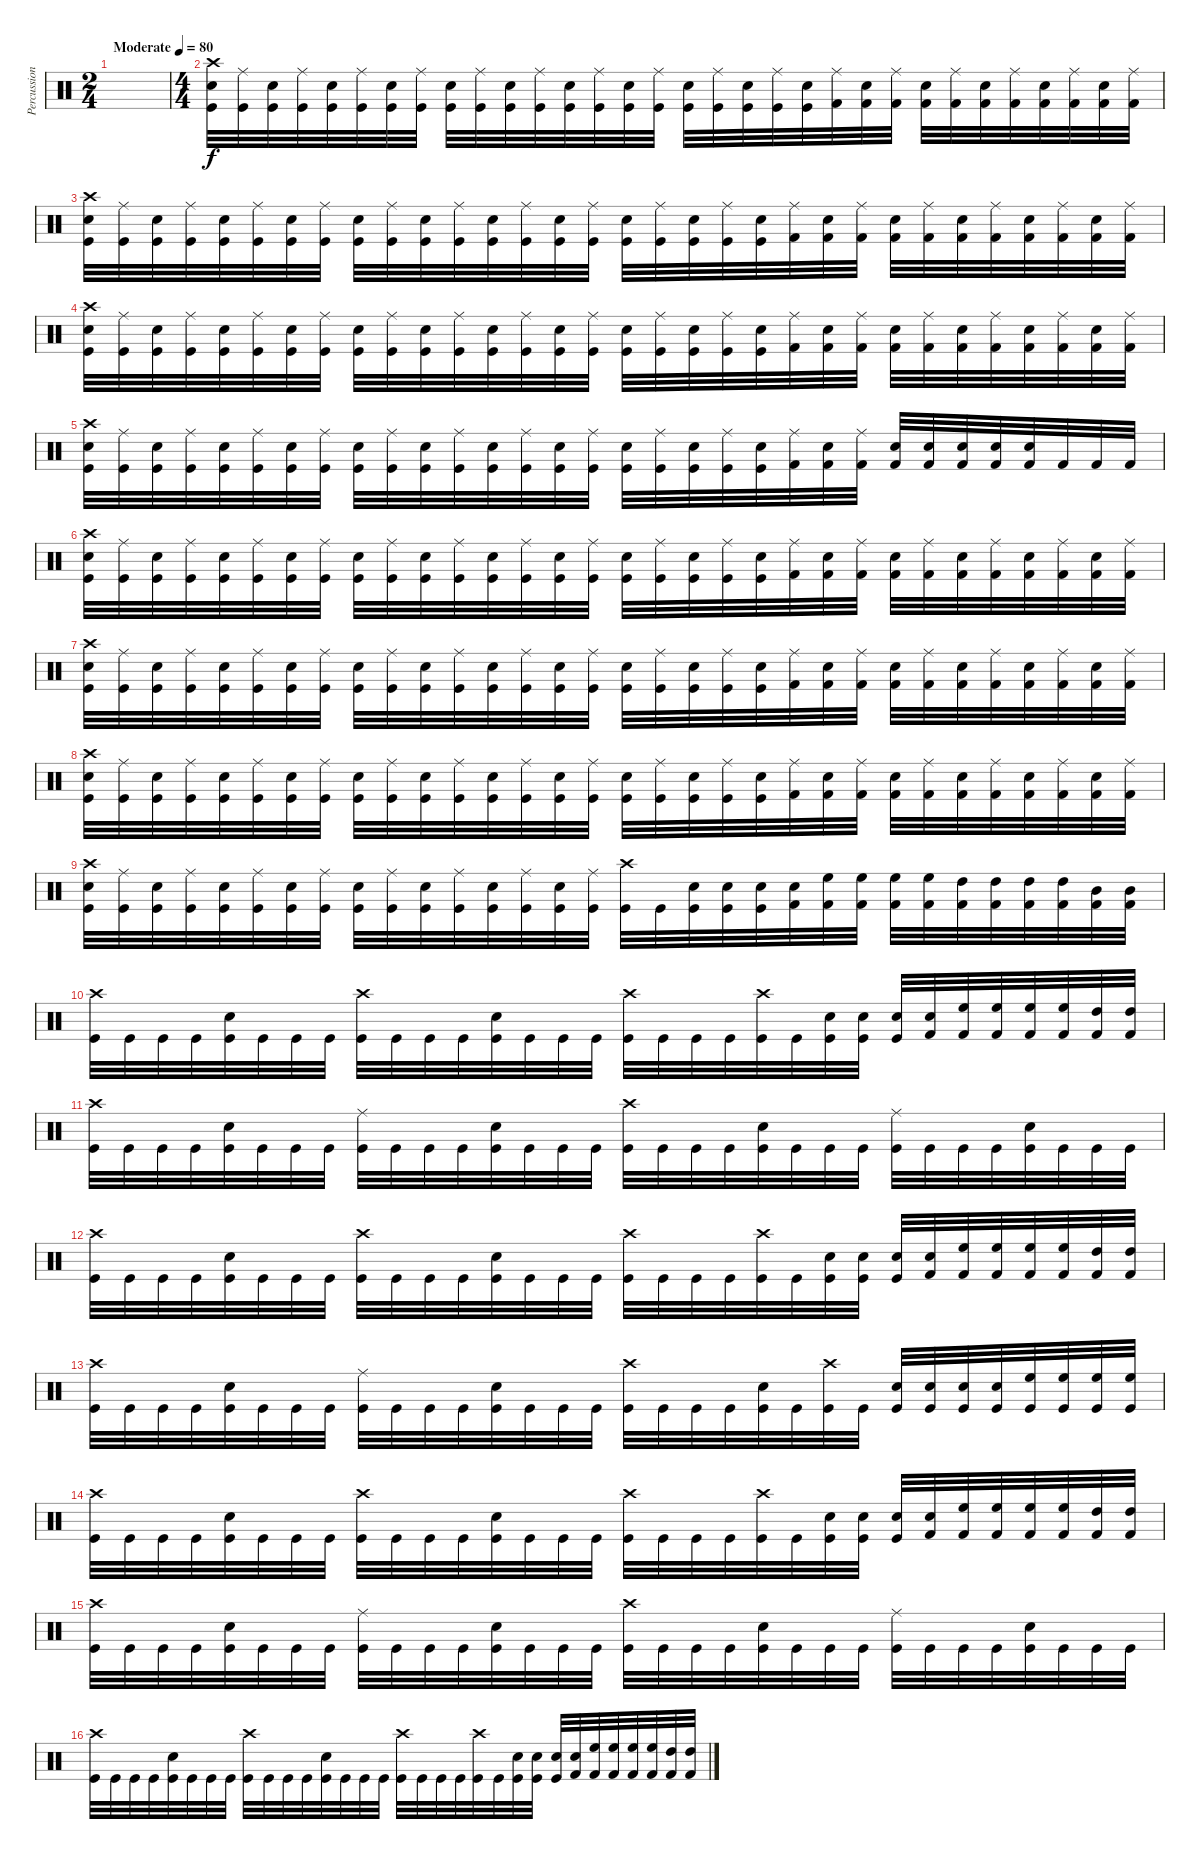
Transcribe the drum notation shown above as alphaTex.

\track ("Percussion" "Percussion") {instrument percussion bank 177}
\staff {score}
\articulation defaults
\ts (2 4)
\tempo (80 "Moderate")
\clef neutral
\ks c
|
\ts (4 4)
("Crash high (hit)" "Snare (hit) 2" "Kick (hit)").32 ("Ride (middle)" "Kick (hit)").32 ("Snare (hit) 2" "Kick (hit)").32 ("Ride (middle)" "Kick (hit)").32 ("Snare (hit) 2" "Kick (hit)").32 ("Ride (middle)" "Kick (hit)").32 ("Snare (hit) 2" "Kick (hit)").32 ("Ride (middle)" "Kick (hit)").32 ("Snare (hit) 2" "Kick (hit)").32 ("Ride (middle)" "Kick (hit)").32 ("Snare (hit) 2" "Kick (hit)").32 ("Ride (middle)" "Kick (hit)").32 ("Snare (hit) 2" "Kick (hit)").32 ("Ride (middle)" "Kick (hit)").32 ("Snare (hit) 2" "Kick (hit)").32 ("Ride (middle)" "Kick (hit)").32 ("Snare (hit) 2" "Kick (hit)").32 ("Ride (middle)" "Kick (hit)").32 ("Snare (hit) 2" "Kick (hit)").32 ("Ride (middle)" "Kick (hit)").32 ("Snare (hit) 2" "Kick (hit)").32 ("Ride (middle)" "Kick (hit) 2").32 ("Snare (hit) 2" "Kick (hit) 2").32 ("Ride (middle)" "Kick (hit) 2").32 ("Snare (hit) 2" "Kick (hit) 2").32 ("Ride (middle)" "Kick (hit) 2").32 ("Snare (hit) 2" "Kick (hit) 2").32 ("Ride (middle)" "Kick (hit) 2").32 ("Snare (hit) 2" "Kick (hit) 2").32 ("Ride (middle)" "Kick (hit) 2").32 ("Snare (hit) 2" "Kick (hit) 2").32 ("Ride (middle)" "Kick (hit) 2").32 |
("Crash high (hit)" "Snare (hit) 2" "Kick (hit)").32 ("Ride (middle)" "Kick (hit)").32 ("Snare (hit) 2" "Kick (hit)").32 ("Ride (middle)" "Kick (hit)").32 ("Snare (hit) 2" "Kick (hit)").32 ("Ride (middle)" "Kick (hit)").32 ("Snare (hit) 2" "Kick (hit)").32 ("Ride (middle)" "Kick (hit)").32 ("Snare (hit) 2" "Kick (hit)").32 ("Ride (middle)" "Kick (hit)").32 ("Snare (hit) 2" "Kick (hit)").32 ("Ride (middle)" "Kick (hit)").32 ("Snare (hit) 2" "Kick (hit)").32 ("Ride (middle)" "Kick (hit)").32 ("Snare (hit) 2" "Kick (hit)").32 ("Ride (middle)" "Kick (hit)").32 ("Snare (hit) 2" "Kick (hit)").32 ("Ride (middle)" "Kick (hit)").32 ("Snare (hit) 2" "Kick (hit)").32 ("Ride (middle)" "Kick (hit)").32 ("Snare (hit) 2" "Kick (hit)").32 ("Ride (middle)" "Kick (hit) 2").32 ("Snare (hit) 2" "Kick (hit) 2").32 ("Ride (middle)" "Kick (hit) 2").32 ("Snare (hit) 2" "Kick (hit) 2").32 ("Ride (middle)" "Kick (hit) 2").32 ("Snare (hit) 2" "Kick (hit) 2").32 ("Ride (middle)" "Kick (hit) 2").32 ("Snare (hit) 2" "Kick (hit) 2").32 ("Ride (middle)" "Kick (hit) 2").32 ("Snare (hit) 2" "Kick (hit) 2").32 ("Ride (middle)" "Kick (hit) 2").32 |
("Crash high (hit)" "Snare (hit) 2" "Kick (hit)").32 ("Ride (middle)" "Kick (hit)").32 ("Snare (hit) 2" "Kick (hit)").32 ("Ride (middle)" "Kick (hit)").32 ("Snare (hit) 2" "Kick (hit)").32 ("Ride (middle)" "Kick (hit)").32 ("Snare (hit) 2" "Kick (hit)").32 ("Ride (middle)" "Kick (hit)").32 ("Snare (hit) 2" "Kick (hit)").32 ("Ride (middle)" "Kick (hit)").32 ("Snare (hit) 2" "Kick (hit)").32 ("Ride (middle)" "Kick (hit)").32 ("Snare (hit) 2" "Kick (hit)").32 ("Ride (middle)" "Kick (hit)").32 ("Snare (hit) 2" "Kick (hit)").32 ("Ride (middle)" "Kick (hit)").32 ("Snare (hit) 2" "Kick (hit)").32 ("Ride (middle)" "Kick (hit)").32 ("Snare (hit) 2" "Kick (hit)").32 ("Ride (middle)" "Kick (hit)").32 ("Snare (hit) 2" "Kick (hit)").32 ("Ride (middle)" "Kick (hit) 2").32 ("Snare (hit) 2" "Kick (hit) 2").32 ("Ride (middle)" "Kick (hit) 2").32 ("Snare (hit) 2" "Kick (hit) 2").32 ("Ride (middle)" "Kick (hit) 2").32 ("Snare (hit) 2" "Kick (hit) 2").32 ("Ride (middle)" "Kick (hit) 2").32 ("Snare (hit) 2" "Kick (hit) 2").32 ("Ride (middle)" "Kick (hit) 2").32 ("Snare (hit) 2" "Kick (hit) 2").32 ("Ride (middle)" "Kick (hit) 2").32 |
("Crash high (hit)" "Snare (hit) 2" "Kick (hit)").32 ("Ride (middle)" "Kick (hit)").32 ("Snare (hit) 2" "Kick (hit)").32 ("Ride (middle)" "Kick (hit)").32 ("Snare (hit) 2" "Kick (hit)").32 ("Ride (middle)" "Kick (hit)").32 ("Snare (hit) 2" "Kick (hit)").32 ("Ride (middle)" "Kick (hit)").32 ("Snare (hit) 2" "Kick (hit)").32 ("Ride (middle)" "Kick (hit)").32 ("Snare (hit) 2" "Kick (hit)").32 ("Ride (middle)" "Kick (hit)").32 ("Snare (hit) 2" "Kick (hit)").32 ("Ride (middle)" "Kick (hit)").32 ("Snare (hit) 2" "Kick (hit)").32 ("Ride (middle)" "Kick (hit)").32 ("Snare (hit) 2" "Kick (hit)").32 ("Ride (middle)" "Kick (hit)").32 ("Snare (hit) 2" "Kick (hit)").32 ("Ride (middle)" "Kick (hit)").32 ("Snare (hit) 2" "Kick (hit)").32 ("Ride (middle)" "Kick (hit) 2").32 ("Snare (hit) 2" "Kick (hit) 2").32 ("Ride (middle)" "Kick (hit) 2").32 ("Snare (hit) 2" "Kick (hit) 2").32 ("Snare (hit) 2" "Kick (hit) 2").32 ("Snare (hit) 2" "Kick (hit) 2").32 ("Snare (hit) 2" "Kick (hit) 2").32 ("Snare (hit) 2" "Kick (hit) 2").32 "Kick (hit) 2".32 "Kick (hit) 2".32 "Kick (hit) 2".32 |
("Crash high (hit)" "Snare (hit) 2" "Kick (hit)").32 ("Ride (middle)" "Kick (hit)").32 ("Snare (hit) 2" "Kick (hit)").32 ("Ride (middle)" "Kick (hit)").32 ("Snare (hit) 2" "Kick (hit)").32 ("Ride (middle)" "Kick (hit)").32 ("Snare (hit) 2" "Kick (hit)").32 ("Ride (middle)" "Kick (hit)").32 ("Snare (hit) 2" "Kick (hit)").32 ("Ride (middle)" "Kick (hit)").32 ("Snare (hit) 2" "Kick (hit)").32 ("Ride (middle)" "Kick (hit)").32 ("Snare (hit) 2" "Kick (hit)").32 ("Ride (middle)" "Kick (hit)").32 ("Snare (hit) 2" "Kick (hit)").32 ("Ride (middle)" "Kick (hit)").32 ("Snare (hit) 2" "Kick (hit)").32 ("Ride (middle)" "Kick (hit)").32 ("Snare (hit) 2" "Kick (hit)").32 ("Ride (middle)" "Kick (hit)").32 ("Snare (hit) 2" "Kick (hit)").32 ("Ride (middle)" "Kick (hit) 2").32 ("Snare (hit) 2" "Kick (hit) 2").32 ("Ride (middle)" "Kick (hit) 2").32 ("Snare (hit) 2" "Kick (hit) 2").32 ("Ride (middle)" "Kick (hit) 2").32 ("Snare (hit) 2" "Kick (hit) 2").32 ("Ride (middle)" "Kick (hit) 2").32 ("Snare (hit) 2" "Kick (hit) 2").32 ("Ride (middle)" "Kick (hit) 2").32 ("Snare (hit) 2" "Kick (hit) 2").32 ("Ride (middle)" "Kick (hit) 2").32 |
("Crash high (hit)" "Snare (hit) 2" "Kick (hit)").32 ("Ride (middle)" "Kick (hit)").32 ("Snare (hit) 2" "Kick (hit)").32 ("Ride (middle)" "Kick (hit)").32 ("Snare (hit) 2" "Kick (hit)").32 ("Ride (middle)" "Kick (hit)").32 ("Snare (hit) 2" "Kick (hit)").32 ("Ride (middle)" "Kick (hit)").32 ("Snare (hit) 2" "Kick (hit)").32 ("Ride (middle)" "Kick (hit)").32 ("Snare (hit) 2" "Kick (hit)").32 ("Ride (middle)" "Kick (hit)").32 ("Snare (hit) 2" "Kick (hit)").32 ("Ride (middle)" "Kick (hit)").32 ("Snare (hit) 2" "Kick (hit)").32 ("Ride (middle)" "Kick (hit)").32 ("Snare (hit) 2" "Kick (hit)").32 ("Ride (middle)" "Kick (hit)").32 ("Snare (hit) 2" "Kick (hit)").32 ("Ride (middle)" "Kick (hit)").32 ("Snare (hit) 2" "Kick (hit)").32 ("Ride (middle)" "Kick (hit) 2").32 ("Snare (hit) 2" "Kick (hit) 2").32 ("Ride (middle)" "Kick (hit) 2").32 ("Snare (hit) 2" "Kick (hit) 2").32 ("Ride (middle)" "Kick (hit) 2").32 ("Snare (hit) 2" "Kick (hit) 2").32 ("Ride (middle)" "Kick (hit) 2").32 ("Snare (hit) 2" "Kick (hit) 2").32 ("Ride (middle)" "Kick (hit) 2").32 ("Snare (hit) 2" "Kick (hit) 2").32 ("Ride (middle)" "Kick (hit) 2").32 |
("Crash high (hit)" "Snare (hit) 2" "Kick (hit)").32 ("Ride (middle)" "Kick (hit)").32 ("Snare (hit) 2" "Kick (hit)").32 ("Ride (middle)" "Kick (hit)").32 ("Snare (hit) 2" "Kick (hit)").32 ("Ride (middle)" "Kick (hit)").32 ("Snare (hit) 2" "Kick (hit)").32 ("Ride (middle)" "Kick (hit)").32 ("Snare (hit) 2" "Kick (hit)").32 ("Ride (middle)" "Kick (hit)").32 ("Snare (hit) 2" "Kick (hit)").32 ("Ride (middle)" "Kick (hit)").32 ("Snare (hit) 2" "Kick (hit)").32 ("Ride (middle)" "Kick (hit)").32 ("Snare (hit) 2" "Kick (hit)").32 ("Ride (middle)" "Kick (hit)").32 ("Snare (hit) 2" "Kick (hit)").32 ("Ride (middle)" "Kick (hit)").32 ("Snare (hit) 2" "Kick (hit)").32 ("Ride (middle)" "Kick (hit)").32 ("Snare (hit) 2" "Kick (hit)").32 ("Ride (middle)" "Kick (hit) 2").32 ("Snare (hit) 2" "Kick (hit) 2").32 ("Ride (middle)" "Kick (hit) 2").32 ("Snare (hit) 2" "Kick (hit) 2").32 ("Ride (middle)" "Kick (hit) 2").32 ("Snare (hit) 2" "Kick (hit) 2").32 ("Ride (middle)" "Kick (hit) 2").32 ("Snare (hit) 2" "Kick (hit) 2").32 ("Ride (middle)" "Kick (hit) 2").32 ("Snare (hit) 2" "Kick (hit) 2").32 ("Ride (middle)" "Kick (hit) 2").32 |
("Crash high (hit)" "Snare (hit) 2" "Kick (hit)").32 ("Ride (middle)" "Kick (hit)").32 ("Snare (hit) 2" "Kick (hit)").32 ("Ride (middle)" "Kick (hit)").32 ("Snare (hit) 2" "Kick (hit)").32 ("Ride (middle)" "Kick (hit)").32 ("Snare (hit) 2" "Kick (hit)").32 ("Ride (middle)" "Kick (hit)").32 ("Snare (hit) 2" "Kick (hit)").32 ("Ride (middle)" "Kick (hit)").32 ("Snare (hit) 2" "Kick (hit)").32 ("Ride (middle)" "Kick (hit)").32 ("Snare (hit) 2" "Kick (hit)").32 ("Ride (middle)" "Kick (hit)").32 ("Snare (hit) 2" "Kick (hit)").32 ("Ride (middle)" "Kick (hit)").32 ("Crash high (hit)" "Kick (hit)").32 "Kick (hit)".32 ("Snare (hit) 2" "Kick (hit)").32 ("Snare (hit) 2" "Kick (hit)").32 ("Snare (hit) 2" "Kick (hit)").32 ("Snare (hit) 2" "Kick (hit) 2").32 ("High Floor Tom (hit)" "Kick (hit) 2").32 ("High Floor Tom (hit)" "Kick (hit) 2").32 ("High Floor Tom (hit)" "Kick (hit) 2").32 ("High Floor Tom (hit)" "Kick (hit) 2").32 ("High Tom (hit)" "Kick (hit) 2").32 ("High Tom (hit)" "Kick (hit) 2").32 ("High Tom (hit)" "Kick (hit) 2").32 ("High Tom (hit)" "Kick (hit) 2").32 ("Mid Tom (hit)" "Kick (hit) 2").32 ("Mid Tom (hit)" "Kick (hit) 2").32 |
("Crash high (hit)" "Kick (hit)").32 "Kick (hit)".32 "Kick (hit)".32 "Kick (hit)".32 ("Snare (hit) 2" "Kick (hit)").32 "Kick (hit)".32 "Kick (hit)".32 "Kick (hit)".32 ("Crash high (hit)" "Kick (hit)").32 "Kick (hit)".32 "Kick (hit)".32 "Kick (hit)".32 ("Snare (hit) 2" "Kick (hit)").32 "Kick (hit)".32 "Kick (hit)".32 "Kick (hit)".32 ("Crash high (hit)" "Kick (hit)").32 "Kick (hit)".32 "Kick (hit)".32 "Kick (hit)".32 ("Crash high (hit)" "Kick (hit)").32 "Kick (hit)".32 ("Snare (hit) 2" "Kick (hit)").32 ("Snare (hit) 2" "Kick (hit)").32 ("Snare (hit) 2" "Kick (hit)").32 ("Snare (hit) 2" "Kick (hit) 2").32 ("High Floor Tom (hit)" "Kick (hit) 2").32 ("High Floor Tom (hit)" "Kick (hit) 2").32 ("High Floor Tom (hit)" "Kick (hit) 2").32 ("High Floor Tom (hit)" "Kick (hit) 2").32 ("High Tom (hit)" "Kick (hit) 2").32 ("High Tom (hit)" "Kick (hit) 2").32 |
("Crash high (hit)" "Kick (hit)").32 "Kick (hit)".32 "Kick (hit)".32 "Kick (hit)".32 ("Snare (hit) 2" "Kick (hit)").32 "Kick (hit)".32 "Kick (hit)".32 "Kick (hit)".32 ("Ride (middle)" "Kick (hit)").32 "Kick (hit)".32 "Kick (hit)".32 "Kick (hit)".32 ("Snare (hit) 2" "Kick (hit)").32 "Kick (hit)".32 "Kick (hit)".32 "Kick (hit)".32 ("Crash high (hit)" "Kick (hit)").32 "Kick (hit)".32 "Kick (hit)".32 "Kick (hit)".32 ("Snare (hit) 2" "Kick (hit)").32 "Kick (hit)".32 "Kick (hit)".32 "Kick (hit)".32 ("Ride (middle)" "Kick (hit)").32 "Kick (hit)".32 "Kick (hit)".32 "Kick (hit)".32 ("Snare (hit) 2" "Kick (hit)").32 "Kick (hit)".32 "Kick (hit)".32 "Kick (hit)".32 |
("Crash high (hit)" "Kick (hit)").32 "Kick (hit)".32 "Kick (hit)".32 "Kick (hit)".32 ("Snare (hit) 2" "Kick (hit)").32 "Kick (hit)".32 "Kick (hit)".32 "Kick (hit)".32 ("Crash high (hit)" "Kick (hit)").32 "Kick (hit)".32 "Kick (hit)".32 "Kick (hit)".32 ("Snare (hit) 2" "Kick (hit)").32 "Kick (hit)".32 "Kick (hit)".32 "Kick (hit)".32 ("Crash high (hit)" "Kick (hit)").32 "Kick (hit)".32 "Kick (hit)".32 "Kick (hit)".32 ("Crash high (hit)" "Kick (hit)").32 "Kick (hit)".32 ("Snare (hit) 2" "Kick (hit)").32 ("Snare (hit) 2" "Kick (hit)").32 ("Snare (hit) 2" "Kick (hit)").32 ("Snare (hit) 2" "Kick (hit) 2").32 ("High Floor Tom (hit)" "Kick (hit) 2").32 ("High Floor Tom (hit)" "Kick (hit) 2").32 ("High Floor Tom (hit)" "Kick (hit) 2").32 ("High Floor Tom (hit)" "Kick (hit) 2").32 ("High Tom (hit)" "Kick (hit) 2").32 ("High Tom (hit)" "Kick (hit) 2").32 |
("Crash high (hit)" "Kick (hit)").32 "Kick (hit)".32 "Kick (hit)".32 "Kick (hit)".32 ("Snare (hit) 2" "Kick (hit)").32 "Kick (hit)".32 "Kick (hit)".32 "Kick (hit)".32 ("Ride (middle)" "Kick (hit)").32 "Kick (hit)".32 "Kick (hit)".32 "Kick (hit)".32 ("Snare (hit) 2" "Kick (hit)").32 "Kick (hit)".32 "Kick (hit)".32 "Kick (hit)".32 ("Crash high (hit)" "Kick (hit)").32 "Kick (hit)".32 "Kick (hit)".32 "Kick (hit)".32 ("Snare (hit) 2" "Kick (hit)").32 "Kick (hit)".32 ("Crash high (hit)" "Kick (hit)").32 "Kick (hit)".32 ("Snare (hit) 2" "Kick (hit)").32 ("Snare (hit) 2" "Kick (hit)").32 ("Snare (hit) 2" "Kick (hit)").32 ("Snare (hit) 2" "Kick (hit)").32 ("High Floor Tom (hit)" "Kick (hit)").32 ("High Floor Tom (hit)" "Kick (hit)").32 ("High Floor Tom (hit)" "Kick (hit)").32 ("High Floor Tom (hit)" "Kick (hit)").32 |
("Crash high (hit)" "Kick (hit)").32 "Kick (hit)".32 "Kick (hit)".32 "Kick (hit)".32 ("Snare (hit) 2" "Kick (hit)").32 "Kick (hit)".32 "Kick (hit)".32 "Kick (hit)".32 ("Crash high (hit)" "Kick (hit)").32 "Kick (hit)".32 "Kick (hit)".32 "Kick (hit)".32 ("Snare (hit) 2" "Kick (hit)").32 "Kick (hit)".32 "Kick (hit)".32 "Kick (hit)".32 ("Crash high (hit)" "Kick (hit)").32 "Kick (hit)".32 "Kick (hit)".32 "Kick (hit)".32 ("Crash high (hit)" "Kick (hit)").32 "Kick (hit)".32 ("Snare (hit) 2" "Kick (hit)").32 ("Snare (hit) 2" "Kick (hit)").32 ("Snare (hit) 2" "Kick (hit)").32 ("Snare (hit) 2" "Kick (hit) 2").32 ("High Floor Tom (hit)" "Kick (hit) 2").32 ("High Floor Tom (hit)" "Kick (hit) 2").32 ("High Floor Tom (hit)" "Kick (hit) 2").32 ("High Floor Tom (hit)" "Kick (hit) 2").32 ("High Tom (hit)" "Kick (hit) 2").32 ("High Tom (hit)" "Kick (hit) 2").32 |
("Crash high (hit)" "Kick (hit)").32 "Kick (hit)".32 "Kick (hit)".32 "Kick (hit)".32 ("Snare (hit) 2" "Kick (hit)").32 "Kick (hit)".32 "Kick (hit)".32 "Kick (hit)".32 ("Ride (middle)" "Kick (hit)").32 "Kick (hit)".32 "Kick (hit)".32 "Kick (hit)".32 ("Snare (hit) 2" "Kick (hit)").32 "Kick (hit)".32 "Kick (hit)".32 "Kick (hit)".32 ("Crash high (hit)" "Kick (hit)").32 "Kick (hit)".32 "Kick (hit)".32 "Kick (hit)".32 ("Snare (hit) 2" "Kick (hit)").32 "Kick (hit)".32 "Kick (hit)".32 "Kick (hit)".32 ("Ride (middle)" "Kick (hit)").32 "Kick (hit)".32 "Kick (hit)".32 "Kick (hit)".32 ("Snare (hit) 2" "Kick (hit)").32 "Kick (hit)".32 "Kick (hit)".32 "Kick (hit)".32 |
("Crash high (hit)" "Kick (hit)").32 "Kick (hit)".32 "Kick (hit)".32 "Kick (hit)".32 ("Snare (hit) 2" "Kick (hit)").32 "Kick (hit)".32 "Kick (hit)".32 "Kick (hit)".32 ("Crash high (hit)" "Kick (hit)").32 "Kick (hit)".32 "Kick (hit)".32 "Kick (hit)".32 ("Snare (hit) 2" "Kick (hit)").32 "Kick (hit)".32 "Kick (hit)".32 "Kick (hit)".32 ("Crash high (hit)" "Kick (hit)").32 "Kick (hit)".32 "Kick (hit)".32 "Kick (hit)".32 ("Crash high (hit)" "Kick (hit)").32 "Kick (hit)".32 ("Snare (hit) 2" "Kick (hit)").32 ("Snare (hit) 2" "Kick (hit)").32 ("Snare (hit) 2" "Kick (hit)").32 ("Snare (hit) 2" "Kick (hit) 2").32 ("High Floor Tom (hit)" "Kick (hit) 2").32 ("High Floor Tom (hit)" "Kick (hit) 2").32 ("High Floor Tom (hit)" "Kick (hit) 2").32 ("High Floor Tom (hit)" "Kick (hit) 2").32 ("High Tom (hit)" "Kick (hit) 2").32 ("High Tom (hit)" "Kick (hit) 2").32
